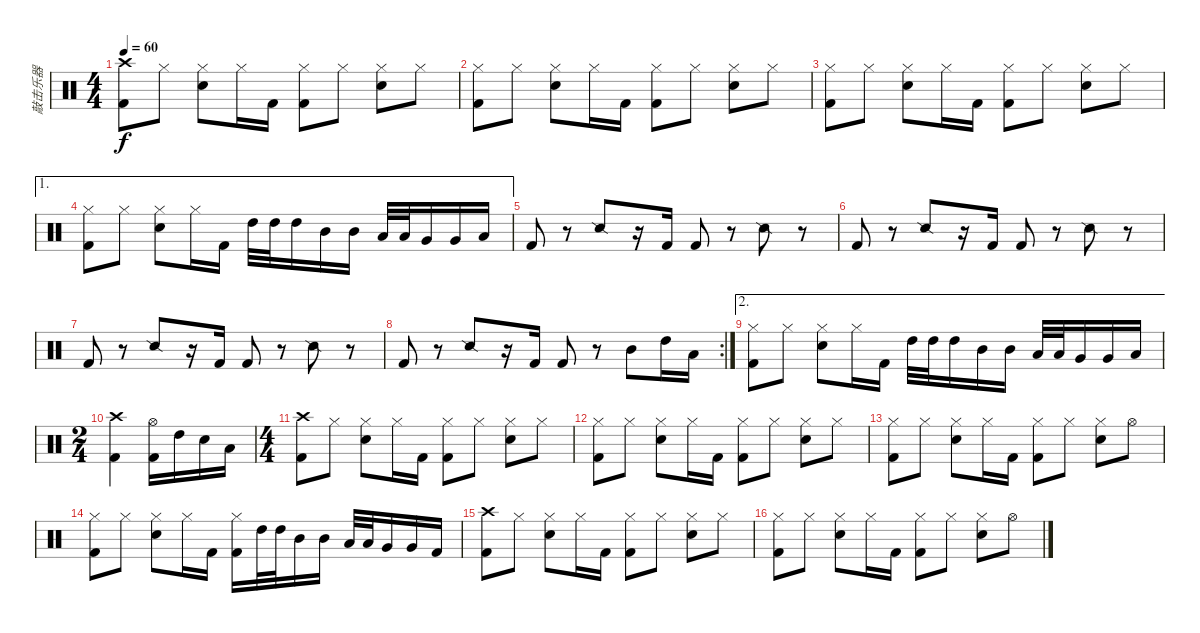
\track ("敲击乐器" "敲击乐器") {instrument percussion}
\staff {score}
\articulation defaults
\ts (4 4)
\tempo 60
\clef neutral
\ks c
("Crash high (hit)" "Kick (hit) 2").8{dy f} "Hi-Hat (closed)".8 ("Hi-Hat (closed)" "Snare (hit) 2").8 "Hi-Hat (closed)".16 "Kick (hit) 2".16 ("Hi-Hat (closed)" "Kick (hit) 2").8 "Hi-Hat (closed)".8 ("Hi-Hat (closed)" "Snare (hit) 2").8 "Hi-Hat (closed)".8 |
("Hi-Hat (closed)" "Kick (hit) 2").8 "Hi-Hat (closed)".8 ("Hi-Hat (closed)" "Snare (hit) 2").8 "Hi-Hat (closed)".16 "Kick (hit) 2".16 ("Hi-Hat (closed)" "Kick (hit) 2").8 "Hi-Hat (closed)".8 ("Hi-Hat (closed)" "Snare (hit) 2").8 "Hi-Hat (closed)".8 |
("Hi-Hat (closed)" "Kick (hit) 2").8 "Hi-Hat (closed)".8 ("Hi-Hat (closed)" "Snare (hit) 2").8 "Hi-Hat (closed)".16 "Kick (hit) 2".16 ("Hi-Hat (closed)" "Kick (hit) 2").8 "Hi-Hat (closed)".8 ("Hi-Hat (closed)" "Snare (hit) 2").8 "Hi-Hat (closed)".8 |
\ae 1
("Hi-Hat (closed)" "Kick (hit) 2").8 "Hi-Hat (closed)".8 ("Hi-Hat (closed)" "Snare (hit) 2").8 "Hi-Hat (closed)".16 "Kick (hit) 2".16 "High Tom (hit)".32 "High Tom (hit)".32 "High Tom (hit)".16 "Mid Tom (hit)".16 "Mid Tom (hit)".16 "Low Tom (hit)".32 "Low Tom (hit)".32 "Very Low Tom (hit)".16 "Very Low Tom (hit)".16 "Low Floor Tom (hit)".16 |
"Kick (hit) 2".8 r.8 "Snare (side stick) 2".8 r.16 "Kick (hit) 2".16 "Kick (hit) 2".8 r.8 "Snare (side stick) 2".8 r.8 |
"Kick (hit) 2".8 r.8 "Snare (side stick) 2".8 r.16 "Kick (hit) 2".16 "Kick (hit) 2".8 r.8 "Snare (side stick) 2".8 r.8 |
"Kick (hit) 2".8 r.8 "Snare (side stick) 2".8 r.16 "Kick (hit) 2".16 "Kick (hit) 2".8 r.8 "Snare (side stick) 2".8 r.8 |
\rc 2 "Kick (hit) 2".8
r.8 "Snare (side stick) 2".8 r.16 "Kick (hit) 2".16 "Kick (hit) 2".8 r.8 "Mid Tom (hit)".8 "High Tom (hit)".16 "Low Tom (hit)".16 |
\ae 2
("Hi-Hat (closed)" "Kick (hit) 2").8 "Hi-Hat (closed)".8 ("Hi-Hat (closed)" "Snare (hit) 2").8 "Hi-Hat (closed)".16 "Kick (hit) 2".16 "High Tom (hit)".32 "High Tom (hit)".32 "High Tom (hit)".16 "Mid Tom (hit)".16 "Mid Tom (hit)".16 "Low Tom (hit)".32 "Low Tom (hit)".32 "Very Low Tom (hit)".16 "Very Low Tom (hit)".16 "Low Floor Tom (hit)".16 |
\ts (2 4)
("Crash high (hit)" "Kick (hit) 2").4 ("Hi-Hat (open)" "Kick (hit) 2").16 "High Tom (hit)".16 "Snare (hit) 2".16 "Low Tom (hit)".16 |
\ts (4 4)
("Crash high (hit)" "Kick (hit) 2").8 "Hi-Hat (closed)".8 ("Hi-Hat (closed)" "Snare (hit) 2").8 "Hi-Hat (closed)".16 "Kick (hit) 2".16 ("Hi-Hat (closed)" "Kick (hit) 2").8 "Hi-Hat (closed)".8 ("Hi-Hat (closed)" "Snare (hit) 2").8 "Hi-Hat (closed)".8 |
("Hi-Hat (closed)" "Kick (hit) 2").8 "Hi-Hat (closed)".8 ("Hi-Hat (closed)" "Snare (hit) 2").8 "Hi-Hat (closed)".16 "Kick (hit) 2".16 ("Hi-Hat (closed)" "Kick (hit) 2").8 "Hi-Hat (closed)".8 ("Hi-Hat (closed)" "Snare (hit) 2").8 "Hi-Hat (closed)".8 |
("Hi-Hat (closed)" "Kick (hit) 2").8 "Hi-Hat (closed)".8 ("Hi-Hat (closed)" "Snare (hit) 2").8 "Hi-Hat (closed)".16 "Kick (hit) 2".16 ("Hi-Hat (closed)" "Kick (hit) 2").8 "Hi-Hat (closed)".8 ("Hi-Hat (closed)" "Snare (hit) 2").8 "Hi-Hat (open)".8 |
("Hi-Hat (closed)" "Kick (hit) 2").8 "Hi-Hat (closed)".8 ("Hi-Hat (closed)" "Snare (hit) 2").8 "Hi-Hat (closed)".16 "Kick (hit) 2".16 ("Hi-Hat (closed)" "Kick (hit) 2").16 "High Tom (hit)".32 "High Tom (hit)".32 "Mid Tom (hit)".16 "Mid Tom (hit)".16 "Low Tom (hit)".32 "Low Tom (hit)".32 "Very Low Tom (hit)".16 "Very Low Tom (hit)".16 "Kick (hit) 2".16 |
("Crash high (hit)" "Kick (hit) 2").8 "Hi-Hat (closed)".8 ("Hi-Hat (closed)" "Snare (hit) 2").8 "Hi-Hat (closed)".16 "Kick (hit) 2".16 ("Hi-Hat (closed)" "Kick (hit) 2").8 "Hi-Hat (closed)".8 ("Hi-Hat (closed)" "Snare (hit) 2").8 "Hi-Hat (closed)".8 |
("Hi-Hat (closed)" "Kick (hit) 2").8 "Hi-Hat (closed)".8 ("Hi-Hat (closed)" "Snare (hit) 2").8 "Hi-Hat (closed)".16 "Kick (hit) 2".16 ("Hi-Hat (closed)" "Kick (hit) 2").8 "Hi-Hat (closed)".8 ("Hi-Hat (closed)" "Snare (hit) 2").8 "Hi-Hat (open)".8
